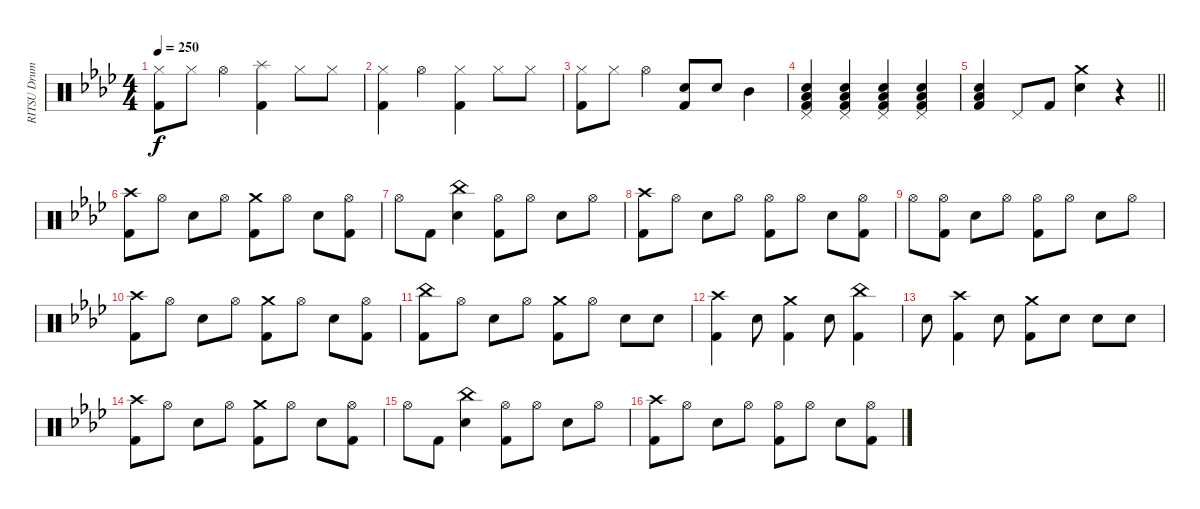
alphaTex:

\track ("RITSU Drums" "RITSU Drum") {instrument percussion}
\staff {score}
\articulation defaults
\ts (4 4)
\tempo 250
\clef neutral
\ks ab
("Hi-Hat (closed)" "Kick (hit) 2").8{dy f} "Hi-Hat (closed)".8 "Hi-Hat (open)".4 ("Splash (hit)" "Kick (hit) 2").4 "Hi-Hat (closed)".8 "Hi-Hat (closed)".8 |
("Hi-Hat (closed)" "Kick (hit) 2").4 "Hi-Hat (open)".4 ("Hi-Hat (closed)" "Kick (hit) 2").4 "Hi-Hat (closed)".8 "Hi-Hat (closed)".8 |
("Hi-Hat (closed)" "Kick (hit) 2").8 "Hi-Hat (closed)".8 "Hi-Hat (open)".4 ("Electric Snare (hit)" "Kick (hit) 2").8 "Electric Snare (hit)".8 "Mid Tom (hit)".4 |
("Pedal Hi-Hat (hit)" "Electric Snare (hit)" "Low Floor Tom (hit)" "Kick (hit) 2").4 ("Pedal Hi-Hat (hit)" "Electric Snare (hit)" "Low Floor Tom (hit)" "Kick (hit) 2").4 ("Pedal Hi-Hat (hit)" "Electric Snare (hit)" "Low Floor Tom (hit)" "Kick (hit) 2").4 ("Pedal Hi-Hat (hit)" "Electric Snare (hit)" "Low Floor Tom (hit)" "Kick (hit) 2").4 |
\barLineRight lightlight
("Electric Snare (hit)" "Low Floor Tom (hit)" "Kick (hit) 2").4 "Pedal Hi-Hat (hit)".8 "Kick (hit) 2".8 ("Crash medium (hit)" "Electric Snare (hit)").4 r.4 |
("Crash high (hit)" "Kick (hit) 2").8 "Hi-Hat (open)".8 "Electric Snare (hit)".8 "Hi-Hat (open)".8 ("Crash medium (hit)" "Kick (hit) 2").8 "Hi-Hat (open)".8 "Electric Snare (hit)".8 ("Hi-Hat (open)" "Kick (hit) 2").8 |
"Hi-Hat (open)".8 "Kick (hit) 2".8 ("China (hit)" "Electric Snare (hit)").4 ("Hi-Hat (open)" "Kick (hit) 2").8 "Hi-Hat (open)".8 "Electric Snare (hit)".8 "Hi-Hat (open)".8 |
("Crash high (hit)" "Kick (hit) 2").8 "Hi-Hat (open)".8 "Electric Snare (hit)".8 "Hi-Hat (open)".8 ("Hi-Hat (open)" "Kick (hit) 2").8 "Hi-Hat (open)".8 "Electric Snare (hit)".8 ("Hi-Hat (open)" "Kick (hit) 2").8 |
"Hi-Hat (open)".8 ("Hi-Hat (open)" "Kick (hit) 2").8 "Electric Snare (hit)".8 "Hi-Hat (open)".8 ("Hi-Hat (open)" "Kick (hit) 2").8 "Hi-Hat (open)".8 "Electric Snare (hit)".8 "Hi-Hat (open)".8 |
("Crash high (hit)" "Kick (hit) 2").8 "Hi-Hat (open)".8 "Electric Snare (hit)".8 "Hi-Hat (open)".8 ("Crash medium (hit)" "Kick (hit) 2").8 "Hi-Hat (open)".8 "Electric Snare (hit)".8 ("Hi-Hat (open)" "Kick (hit) 2").8 |
("China (hit)" "Kick (hit) 2").8 "Hi-Hat (open)".8 "Electric Snare (hit)".8 "Hi-Hat (open)".8 ("Crash medium (hit)" "Kick (hit) 2").8 "Hi-Hat (open)".8 "Electric Snare (hit)".8 "Electric Snare (hit)".8 |
("Crash high (hit)" "Kick (hit) 2").4 "Electric Snare (hit)".8 ("Crash medium (hit)" "Kick (hit) 2").4 "Electric Snare (hit)".8 ("China (hit)" "Kick (hit) 2").4 |
"Electric Snare (hit)".8 ("Crash high (hit)" "Kick (hit) 2").4 "Electric Snare (hit)".8 ("Crash medium (hit)" "Kick (hit) 2").8 "Electric Snare (hit)".8 "Electric Snare (hit)".8 "Electric Snare (hit)".8 |
("Crash high (hit)" "Kick (hit) 2").8 "Hi-Hat (open)".8 "Electric Snare (hit)".8 "Hi-Hat (open)".8 ("Crash medium (hit)" "Kick (hit) 2").8 "Hi-Hat (open)".8 "Electric Snare (hit)".8 ("Hi-Hat (open)" "Kick (hit) 2").8 |
"Hi-Hat (open)".8 "Kick (hit) 2".8 ("China (hit)" "Electric Snare (hit)").4 ("Hi-Hat (open)" "Kick (hit) 2").8 "Hi-Hat (open)".8 "Electric Snare (hit)".8 "Hi-Hat (open)".8 |
("Crash high (hit)" "Kick (hit) 2").8 "Hi-Hat (open)".8 "Electric Snare (hit)".8 "Hi-Hat (open)".8 ("Hi-Hat (open)" "Kick (hit) 2").8 "Hi-Hat (open)".8 "Electric Snare (hit)".8 ("Hi-Hat (open)" "Kick (hit) 2").8
